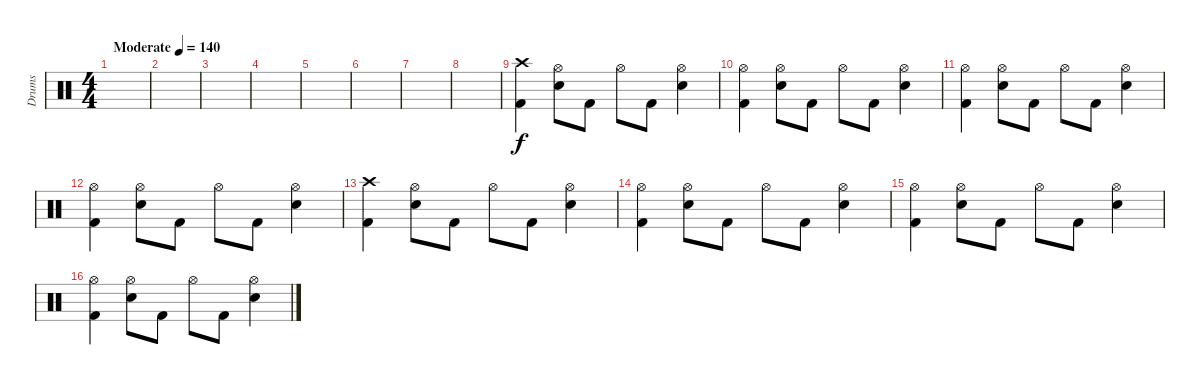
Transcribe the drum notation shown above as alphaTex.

\track ("Drums" "Drums") {instrument percussion}
\staff {score}
\articulation defaults
\ts (4 4)
\tempo (140 "Moderate")
\clef neutral
\ks c
|
|
|
|
|
|
|
|
("Crash high (hit)" "Kick (hit) 2").4 ("Hi-Hat (open)" "Snare (hit) 2").8 "Kick (hit) 2".8 "Hi-Hat (open)".8 "Kick (hit) 2".8 ("Hi-Hat (open)" "Snare (hit) 2").4 |
("Hi-Hat (open)" "Kick (hit) 2").4 ("Hi-Hat (open)" "Snare (hit) 2").8 "Kick (hit) 2".8 "Hi-Hat (open)".8 "Kick (hit) 2".8 ("Hi-Hat (open)" "Snare (hit) 2").4 |
("Hi-Hat (open)" "Kick (hit) 2").4 ("Hi-Hat (open)" "Snare (hit) 2").8 "Kick (hit) 2".8 "Hi-Hat (open)".8 "Kick (hit) 2".8 ("Hi-Hat (open)" "Snare (hit) 2").4 |
("Hi-Hat (open)" "Kick (hit) 2").4 ("Hi-Hat (open)" "Snare (hit) 2").8 "Kick (hit) 2".8 "Hi-Hat (open)".8 "Kick (hit) 2".8 ("Hi-Hat (open)" "Snare (hit) 2").4 |
("Crash high (hit)" "Kick (hit) 2").4 ("Hi-Hat (open)" "Snare (hit) 2").8 "Kick (hit) 2".8 "Hi-Hat (open)".8 "Kick (hit) 2".8 ("Hi-Hat (open)" "Snare (hit) 2").4 |
("Hi-Hat (open)" "Kick (hit) 2").4 ("Hi-Hat (open)" "Snare (hit) 2").8 "Kick (hit) 2".8 "Hi-Hat (open)".8 "Kick (hit) 2".8 ("Hi-Hat (open)" "Snare (hit) 2").4 |
("Hi-Hat (open)" "Kick (hit) 2").4 ("Hi-Hat (open)" "Snare (hit) 2").8 "Kick (hit) 2".8 "Hi-Hat (open)".8 "Kick (hit) 2".8 ("Hi-Hat (open)" "Snare (hit) 2").4 |
("Hi-Hat (open)" "Kick (hit) 2").4 ("Hi-Hat (open)" "Snare (hit) 2").8 "Kick (hit) 2".8 "Hi-Hat (open)".8 "Kick (hit) 2".8 ("Hi-Hat (open)" "Snare (hit) 2").4
